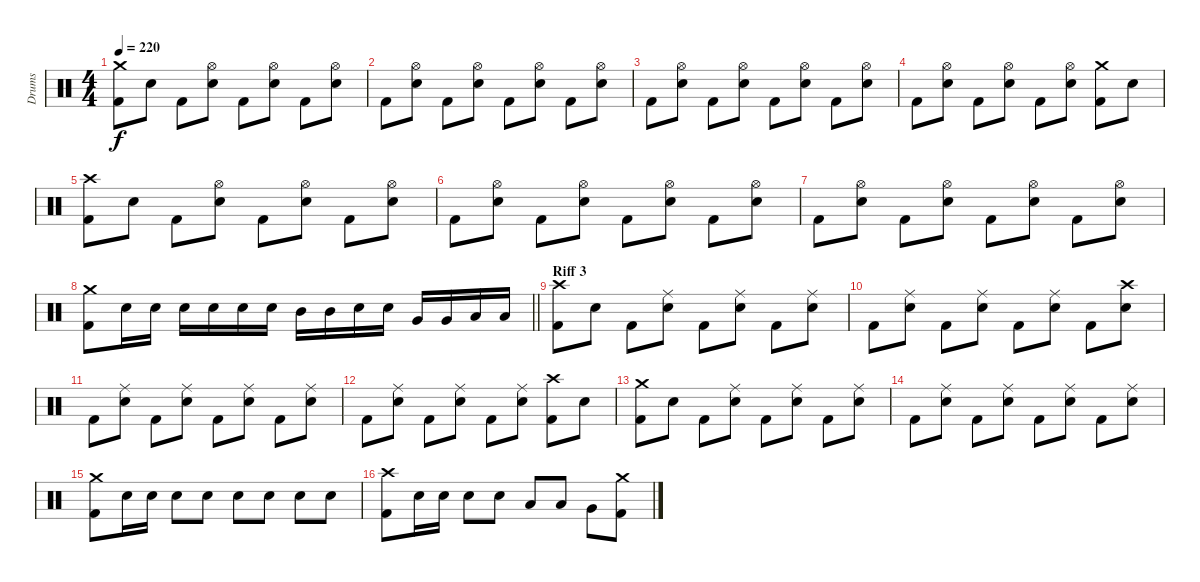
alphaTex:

\track ("Drums" "Drums") {instrument percussion}
\staff {score}
\articulation defaults
\ts (4 4)
\tempo 220
\clef neutral
\ks c
("Crash medium (hit)" "Kick (hit) 2").8{dy f} "Electric Snare (hit)".8 "Kick (hit) 2".8 ("Electric Snare (hit)" "Hi-Hat (open)").8 "Kick (hit) 2".8 ("Electric Snare (hit)" "Hi-Hat (open)").8 "Kick (hit) 2".8 ("Electric Snare (hit)" "Hi-Hat (open)").8 |
"Kick (hit) 2".8 ("Electric Snare (hit)" "Hi-Hat (open)").8 "Kick (hit) 2".8 ("Electric Snare (hit)" "Hi-Hat (open)").8 "Kick (hit) 2".8 ("Electric Snare (hit)" "Hi-Hat (open)").8 "Kick (hit) 2".8 ("Electric Snare (hit)" "Hi-Hat (open)").8 |
"Kick (hit) 2".8 ("Electric Snare (hit)" "Hi-Hat (open)").8 "Kick (hit) 2".8 ("Electric Snare (hit)" "Hi-Hat (open)").8 "Kick (hit) 2".8 ("Electric Snare (hit)" "Hi-Hat (open)").8 "Kick (hit) 2".8 ("Electric Snare (hit)" "Hi-Hat (open)").8 |
"Kick (hit) 2".8 ("Electric Snare (hit)" "Hi-Hat (open)").8 "Kick (hit) 2".8 ("Electric Snare (hit)" "Hi-Hat (open)").8 "Kick (hit) 2".8 ("Electric Snare (hit)" "Hi-Hat (open)").8 ("Kick (hit) 2" "Crash medium (hit)").8 "Electric Snare (hit)".8 |
("Kick (hit) 2" "Crash high (hit)").8 "Electric Snare (hit)".8 "Kick (hit) 2".8 ("Electric Snare (hit)" "Hi-Hat (open)").8 "Kick (hit) 2".8 ("Electric Snare (hit)" "Hi-Hat (open)").8 "Kick (hit) 2".8 ("Electric Snare (hit)" "Hi-Hat (open)").8 |
"Kick (hit) 2".8 ("Electric Snare (hit)" "Hi-Hat (open)").8 "Kick (hit) 2".8 ("Electric Snare (hit)" "Hi-Hat (open)").8 "Kick (hit) 2".8 ("Electric Snare (hit)" "Hi-Hat (open)").8 "Kick (hit) 2".8 ("Electric Snare (hit)" "Hi-Hat (open)").8 |
"Kick (hit) 2".8 ("Electric Snare (hit)" "Hi-Hat (open)").8 "Kick (hit) 2".8 ("Electric Snare (hit)" "Hi-Hat (open)").8 "Kick (hit) 2".8 ("Electric Snare (hit)" "Hi-Hat (open)").8 "Kick (hit) 2".8 ("Electric Snare (hit)" "Hi-Hat (open)").8 |
\barLineRight lightlight
("Kick (hit) 2" "Crash medium (hit)").8 "Electric Snare (hit)".16 "Electric Snare (hit)".16 "Electric Snare (hit)".16 "Electric Snare (hit)".16 "Electric Snare (hit)".16 "Electric Snare (hit)".16 "Mid Tom (hit)".16 "Mid Tom (hit)".16 "Electric Snare (hit)".16 "Electric Snare (hit)".16 "Very Low Tom (hit)".16 "Very Low Tom (hit)".16 "Low Floor Tom (hit)".16 "Low Floor Tom (hit)".16 |
\section ("" "Riff 3")
("Kick (hit) 2" "Crash high (hit)").8 "Electric Snare (hit)".8 "Kick (hit) 2".8 ("Electric Snare (hit)" "Ride (middle)").8 "Kick (hit) 2".8 ("Electric Snare (hit)" "Ride (middle)").8 "Kick (hit) 2".8 ("Electric Snare (hit)" "Ride (middle)").8 |
"Kick (hit) 2".8 ("Electric Snare (hit)" "Ride (middle)").8 "Kick (hit) 2".8 ("Electric Snare (hit)" "Ride (middle)").8 "Kick (hit) 2".8 ("Electric Snare (hit)" "Ride (middle)").8 "Kick (hit) 2".8 ("Electric Snare (hit)" "Crash high (hit)").8 |
"Kick (hit) 2".8 ("Electric Snare (hit)" "Ride (middle)").8 "Kick (hit) 2".8 ("Electric Snare (hit)" "Ride (middle)").8 "Kick (hit) 2".8 ("Electric Snare (hit)" "Ride (middle)").8 "Kick (hit) 2".8 ("Electric Snare (hit)" "Ride (middle)").8 |
"Kick (hit) 2".8 ("Electric Snare (hit)" "Ride (middle)").8 "Kick (hit) 2".8 ("Electric Snare (hit)" "Ride (middle)").8 "Kick (hit) 2".8 ("Electric Snare (hit)" "Ride (middle)").8 ("Kick (hit) 2" "Crash high (hit)").8 "Electric Snare (hit)".8 |
("Kick (hit) 2" "Crash medium (hit)").8 "Electric Snare (hit)".8 "Kick (hit) 2".8 ("Electric Snare (hit)" "Ride (middle)").8 "Kick (hit) 2".8 ("Electric Snare (hit)" "Ride (middle)").8 "Kick (hit) 2".8 ("Electric Snare (hit)" "Ride (middle)").8 |
"Kick (hit) 2".8 ("Electric Snare (hit)" "Ride (middle)").8 "Kick (hit) 2".8 ("Electric Snare (hit)" "Ride (middle)").8 "Kick (hit) 2".8 ("Electric Snare (hit)" "Ride (middle)").8 "Kick (hit) 2".8 ("Electric Snare (hit)" "Ride (middle)").8 |
("Crash medium (hit)" "Kick (hit) 2").8 "Electric Snare (hit)".16 "Electric Snare (hit)".16 "Electric Snare (hit)".8 "Electric Snare (hit)".8 "Electric Snare (hit)".8 "Electric Snare (hit)".8 "Electric Snare (hit)".8 "Electric Snare (hit)".8 |
("Kick (hit) 2" "Crash high (hit)").8 "Electric Snare (hit)".16 "Electric Snare (hit)".16 "Electric Snare (hit)".8 "Electric Snare (hit)".8 "Low Tom (hit)".8 "Low Tom (hit)".8 "Very Low Tom (hit)".8 ("Crash medium (hit)" "Kick (hit) 2").8
